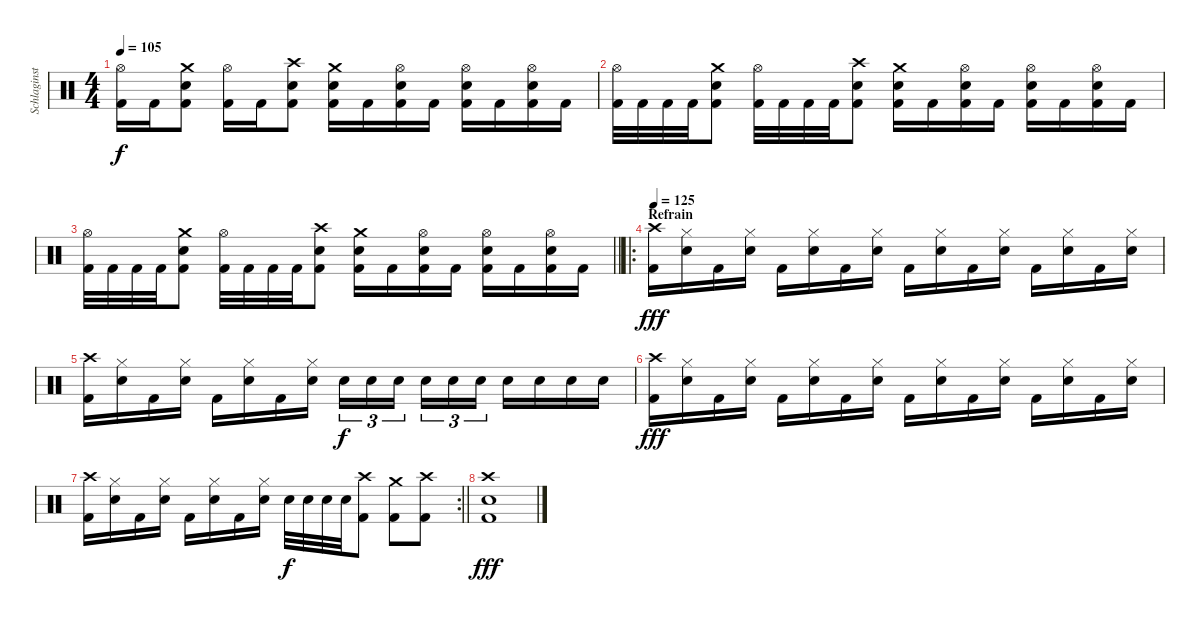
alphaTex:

\track ("Schlaginstrumente - Auswahl" "Schlaginst") {instrument percussion}
\staff {score}
\articulation defaults
\ts (4 4)
\tempo 105
\clef neutral
\ks c
("Hi-Hat (open)" "Kick (hit) 2").16{dy f} "Kick (hit) 2".16 ("Crash medium (hit)" "Electric Snare (hit)" "Kick (hit) 2").8 ("Hi-Hat (open)" "Kick (hit) 2").16 "Kick (hit) 2".16 ("Crash high (hit)" "Electric Snare (hit)" "Kick (hit) 2").8 ("Crash medium (hit)" "Electric Snare (hit)" "Kick (hit) 2").16 "Kick (hit) 2".16 ("Hi-Hat (open)" "Electric Snare (hit)" "Kick (hit) 2").16 "Kick (hit) 2".16 ("Hi-Hat (open)" "Electric Snare (hit)" "Kick (hit) 2").16 "Kick (hit) 2".16 ("Hi-Hat (open)" "Electric Snare (hit)" "Kick (hit) 2").16 "Kick (hit) 2".16 |
("Hi-Hat (open)" "Kick (hit) 2").32 "Kick (hit) 2".32 "Kick (hit) 2".32 "Kick (hit) 2".32 ("Crash medium (hit)" "Electric Snare (hit)" "Kick (hit) 2").8 ("Hi-Hat (open)" "Kick (hit) 2").32 "Kick (hit) 2".32 "Kick (hit) 2".32 "Kick (hit) 2".32 ("Crash high (hit)" "Electric Snare (hit)" "Kick (hit) 2").8 ("Crash medium (hit)" "Electric Snare (hit)" "Kick (hit) 2").16 "Kick (hit) 2".16 ("Hi-Hat (open)" "Electric Snare (hit)" "Kick (hit) 2").16 "Kick (hit) 2".16 ("Hi-Hat (open)" "Electric Snare (hit)" "Kick (hit) 2").16 "Kick (hit) 2".16 ("Hi-Hat (open)" "Electric Snare (hit)" "Kick (hit) 2").16 "Kick (hit) 2".16 |
\barLineRight lightlight
("Hi-Hat (open)" "Kick (hit) 2").32 "Kick (hit) 2".32 "Kick (hit) 2".32 "Kick (hit) 2".32 ("Crash medium (hit)" "Electric Snare (hit)" "Kick (hit) 2").8 ("Hi-Hat (open)" "Kick (hit) 2").32 "Kick (hit) 2".32 "Kick (hit) 2".32 "Kick (hit) 2".32 ("Crash high (hit)" "Electric Snare (hit)" "Kick (hit) 2").8 ("Crash medium (hit)" "Electric Snare (hit)" "Kick (hit) 2").16 "Kick (hit) 2".16 ("Hi-Hat (open)" "Electric Snare (hit)" "Kick (hit) 2").16 "Kick (hit) 2".16 ("Hi-Hat (open)" "Electric Snare (hit)" "Kick (hit) 2").16 "Kick (hit) 2".16 ("Hi-Hat (open)" "Electric Snare (hit)" "Kick (hit) 2").16 "Kick (hit) 2".16 |
\ro
\section ("" "Refrain")
\tempo 125
("Crash high (hit)" "Kick (hit) 2").16{dy fff} ("Hi-Hat (closed)" "Electric Snare (hit)").16 "Kick (hit) 2".16 ("Hi-Hat (closed)" "Electric Snare (hit)").16 "Kick (hit) 2".16 ("Hi-Hat (closed)" "Electric Snare (hit)").16 "Kick (hit) 2".16 ("Hi-Hat (closed)" "Electric Snare (hit)").16 "Kick (hit) 2".16 ("Hi-Hat (closed)" "Electric Snare (hit)").16 "Kick (hit) 2".16 ("Hi-Hat (closed)" "Electric Snare (hit)").16 "Kick (hit) 2".16 ("Hi-Hat (closed)" "Electric Snare (hit)").16 "Kick (hit) 2".16 ("Hi-Hat (closed)" "Electric Snare (hit)").16 |
("Crash high (hit)" "Kick (hit) 2").16 ("Hi-Hat (closed)" "Electric Snare (hit)").16 "Kick (hit) 2".16 ("Hi-Hat (closed)" "Electric Snare (hit)").16 "Kick (hit) 2".16 ("Hi-Hat (closed)" "Electric Snare (hit)").16 "Kick (hit) 2".16 ("Hi-Hat (closed)" "Electric Snare (hit)").16 "Electric Snare (hit)".16{tu (3 2) dy f} "Electric Snare (hit)".16{tu (3 2)} "Electric Snare (hit)".16{tu (3 2) beam splitsecondary} "Electric Snare (hit)".16{tu (3 2)} "Electric Snare (hit)".16{tu (3 2)} "Electric Snare (hit)".16{tu (3 2)} "Electric Snare (hit)".16 "Electric Snare (hit)".16 "Electric Snare (hit)".16 "Electric Snare (hit)".16 |
("Crash high (hit)" "Kick (hit) 2").16{dy fff} ("Hi-Hat (closed)" "Electric Snare (hit)").16 "Kick (hit) 2".16 ("Hi-Hat (closed)" "Electric Snare (hit)").16 "Kick (hit) 2".16 ("Hi-Hat (closed)" "Electric Snare (hit)").16 "Kick (hit) 2".16 ("Hi-Hat (closed)" "Electric Snare (hit)").16 "Kick (hit) 2".16 ("Hi-Hat (closed)" "Electric Snare (hit)").16 "Kick (hit) 2".16 ("Hi-Hat (closed)" "Electric Snare (hit)").16 "Kick (hit) 2".16 ("Hi-Hat (closed)" "Electric Snare (hit)").16 "Kick (hit) 2".16 ("Hi-Hat (closed)" "Electric Snare (hit)").16 |
\rc 2
\barLineRight lightlight
("Crash high (hit)" "Kick (hit) 2").16 ("Hi-Hat (closed)" "Electric Snare (hit)").16 "Kick (hit) 2".16 ("Hi-Hat (closed)" "Electric Snare (hit)").16 "Kick (hit) 2".16 ("Hi-Hat (closed)" "Electric Snare (hit)").16 "Kick (hit) 2".16 ("Hi-Hat (closed)" "Electric Snare (hit)").16 "Electric Snare (hit)".32{dy f} "Electric Snare (hit)".32 "Electric Snare (hit)".32 "Electric Snare (hit)".32 ("Crash high (hit)" "Kick (hit) 2").8 ("Crash medium (hit)" "Kick (hit) 2").8 ("Crash high (hit)" "Kick (hit) 2").8 |
("Crash high (hit)" "Electric Snare (hit)" "Kick (hit) 2").1{dy fff}
